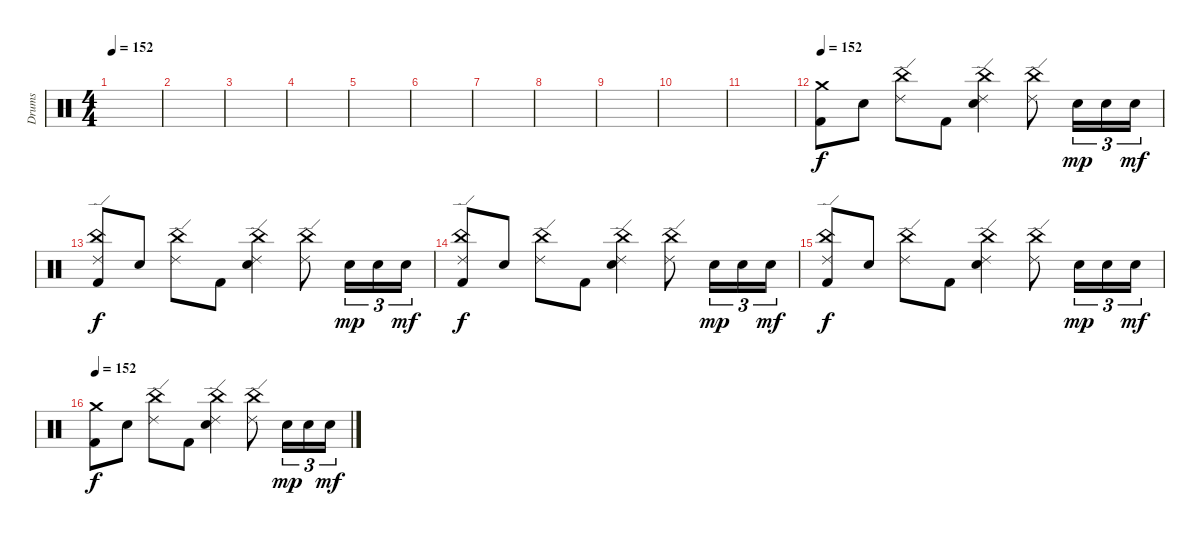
\track ("Drums" "Drums") {instrument percussion}
\staff {score}
\articulation defaults
\ts (4 4)
\tempo 152
\clef neutral
\ks c
|
|
|
|
|
|
|
|
|
|
|
\tempo 152
("Crash medium (hit)" "Kick (hit) 2").8 "Snare (hit) 2".8 ("China (hit)" "Ride (edge) 2").8 "Kick (hit) 2".8 ("China (hit)" "Ride (edge) 2" "Snare (hit) 2").4 ("China (hit)" "Ride (edge) 2").8 "Snare (hit) 2".16{tu (3 2) dy mp} "Snare (hit) 2".16{tu (3 2)} "Snare (hit) 2".16{tu (3 2) dy mf} |
("China (hit)" "Ride (edge) 2" "Kick (hit) 2").8{dy f} "Snare (hit) 2".8 ("China (hit)" "Ride (edge) 2").8 "Kick (hit) 2".8 ("China (hit)" "Ride (edge) 2" "Snare (hit) 2").4 ("China (hit)" "Ride (edge) 2").8 "Snare (hit) 2".16{tu (3 2) dy mp} "Snare (hit) 2".16{tu (3 2)} "Snare (hit) 2".16{tu (3 2) dy mf} |
("China (hit)" "Ride (edge) 2" "Kick (hit) 2").8{dy f} "Snare (hit) 2".8 ("China (hit)" "Ride (edge) 2").8 "Kick (hit) 2".8 ("China (hit)" "Ride (edge) 2" "Snare (hit) 2").4 ("China (hit)" "Ride (edge) 2").8 "Snare (hit) 2".16{tu (3 2) dy mp} "Snare (hit) 2".16{tu (3 2)} "Snare (hit) 2".16{tu (3 2) dy mf} |
("China (hit)" "Ride (edge) 2" "Kick (hit) 2").8{dy f} "Snare (hit) 2".8 ("China (hit)" "Ride (edge) 2").8 "Kick (hit) 2".8 ("China (hit)" "Ride (edge) 2" "Snare (hit) 2").4 ("China (hit)" "Ride (edge) 2").8 "Snare (hit) 2".16{tu (3 2) dy mp} "Snare (hit) 2".16{tu (3 2)} "Snare (hit) 2".16{tu (3 2) dy mf} |
\tempo 152
("Crash medium (hit)" "Kick (hit) 2").8{dy f} "Snare (hit) 2".8 ("China (hit)" "Ride (edge) 2").8 "Kick (hit) 2".8 ("China (hit)" "Ride (edge) 2" "Snare (hit) 2").4 ("China (hit)" "Ride (edge) 2").8 "Snare (hit) 2".16{tu (3 2) dy mp} "Snare (hit) 2".16{tu (3 2)} "Snare (hit) 2".16{tu (3 2) dy mf}
